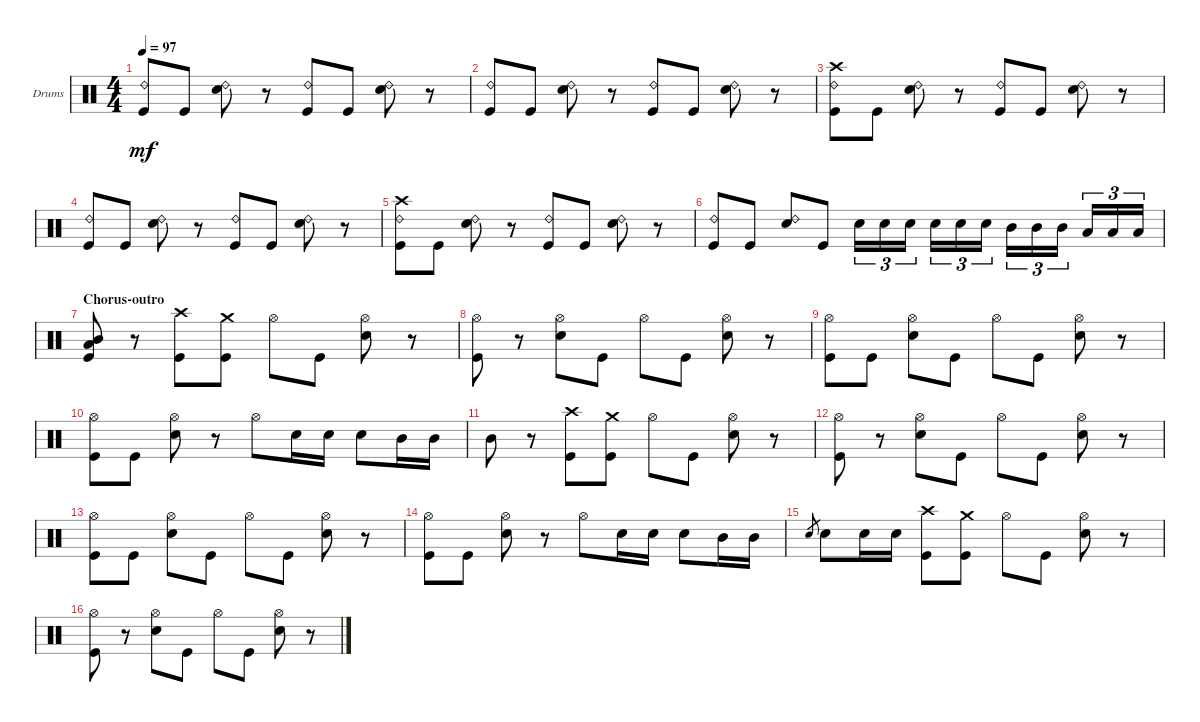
\bracketExtendMode groupsimilarinstruments
\firstSystemTrackNameOrientation horizontal
\otherSystemsTrackNameOrientation horizontal
\track ("Drumkit" "Drums") {instrument percussion}
\staff {score}
\articulation defaults
\ts (4 4)
\tempo 97
\clef neutral
\ks c
("Ride (bell) 2" "Kick (hit)").8{dy mf} "Kick (hit)".8 ("Ride (bell) 2" "Snare (hit) 2").8 r.8 ("Ride (bell) 2" "Kick (hit)").8 "Kick (hit)".8 ("Ride (bell) 2" "Snare (hit) 2").8 r.8 |
("Ride (bell) 2" "Kick (hit)").8 "Kick (hit)".8 ("Ride (bell) 2" "Snare (hit) 2").8 r.8 ("Ride (bell) 2" "Kick (hit)").8 "Kick (hit)".8 ("Ride (bell) 2" "Snare (hit) 2").8 r.8 |
("Ride (bell) 2" "Crash high (hit)" "Kick (hit)").8 "Kick (hit)".8 ("Ride (bell) 2" "Snare (hit) 2").8 r.8 ("Ride (bell) 2" "Kick (hit)").8 "Kick (hit)".8 ("Ride (bell) 2" "Snare (hit) 2").8 r.8 |
("Ride (bell) 2" "Kick (hit)").8 "Kick (hit)".8 ("Ride (bell) 2" "Snare (hit) 2").8 r.8 ("Ride (bell) 2" "Kick (hit)").8 "Kick (hit)".8 ("Ride (bell) 2" "Snare (hit) 2").8 r.8 |
("Ride (bell) 2" "Crash high (hit)" "Kick (hit)").8 "Kick (hit)".8 ("Ride (bell) 2" "Snare (hit) 2").8 r.8 ("Ride (bell) 2" "Kick (hit)").8 "Kick (hit)".8 ("Ride (bell) 2" "Snare (hit) 2").8 r.8 |
("Ride (bell) 2" "Kick (hit)").8 "Kick (hit)".8 ("Ride (bell) 2" "Snare (hit) 2").8 "Kick (hit)".8 "Snare (hit) 2".16{tu (3 2)} "Snare (hit) 2".16{tu (3 2)} "Snare (hit) 2".16{tu (3 2)} "Snare (hit) 2".16{tu (3 2)} "Snare (hit) 2".16{tu (3 2)} "Snare (hit) 2".16{tu (3 2)} "Mid Tom (hit)".16{tu (3 2)} "Mid Tom (hit)".16{tu (3 2)} "Mid Tom (hit)".16{tu (3 2)} "Low Tom (hit)".16{tu (3 2)} "Low Tom (hit)".16{tu (3 2)} "Low Tom (hit)".16{tu (3 2)} |
\section ("" "Chorus-outro")
("Mid Tom (hit)" "Low Tom (hit)" "Kick (hit)").8 r.8 ("Crash high (hit)" "Kick (hit)").8 ("Crash medium (hit)" "Kick (hit)").8 "Hi-Hat (open)".8 "Kick (hit)".8 ("Hi-Hat (open)" "Snare (hit) 2").8 r.8 |
("Hi-Hat (open)" "Kick (hit)").8 r.8 ("Hi-Hat (open)" "Snare (hit) 2").8 "Kick (hit)".8 "Hi-Hat (open)".8 "Kick (hit)".8 ("Hi-Hat (open)" "Snare (hit) 2").8 r.8 |
("Hi-Hat (open)" "Kick (hit)").8 "Kick (hit)".8 ("Hi-Hat (open)" "Snare (hit) 2").8 "Kick (hit)".8 "Hi-Hat (open)".8 "Kick (hit)".8 ("Hi-Hat (open)" "Snare (hit) 2").8 r.8 |
("Hi-Hat (open)" "Kick (hit)").8 "Kick (hit)".8 ("Hi-Hat (open)" "Snare (hit) 2").8 r.8 "Hi-Hat (open)".8 "Snare (hit) 2".16 "Snare (hit) 2".16 "Snare (hit) 2".8 "Mid Tom (hit)".16 "Mid Tom (hit)".16 |
"Mid Tom (hit)".8 r.8 ("Crash high (hit)" "Kick (hit)").8 ("Crash medium (hit)" "Kick (hit)").8 "Hi-Hat (open)".8 "Kick (hit)".8 ("Hi-Hat (open)" "Snare (hit) 2").8 r.8 |
("Hi-Hat (open)" "Kick (hit)").8 r.8 ("Hi-Hat (open)" "Snare (hit) 2").8 "Kick (hit)".8 "Hi-Hat (open)".8 "Kick (hit)".8 ("Hi-Hat (open)" "Snare (hit) 2").8 r.8 |
("Hi-Hat (open)" "Kick (hit)").8 "Kick (hit)".8 ("Hi-Hat (open)" "Snare (hit) 2").8 "Kick (hit)".8 "Hi-Hat (open)".8 "Kick (hit)".8 ("Hi-Hat (open)" "Snare (hit) 2").8 r.8 |
("Hi-Hat (open)" "Kick (hit)").8 "Kick (hit)".8 ("Hi-Hat (open)" "Snare (hit) 2").8 r.8 "Hi-Hat (open)".8 "Snare (hit) 2".16 "Snare (hit) 2".16 "Snare (hit) 2".8 "Mid Tom (hit)".16 "Mid Tom (hit)".16 |
"Snare (hit) 2".8{gr} "Snare (hit) 2".8 "Snare (hit) 2".16 "Snare (hit) 2".16 ("Crash high (hit)" "Kick (hit)").8 ("Crash medium (hit)" "Kick (hit)").8 "Hi-Hat (open)".8 "Kick (hit)".8 ("Hi-Hat (open)" "Snare (hit) 2").8 r.8 |
("Hi-Hat (open)" "Kick (hit)").8 r.8 ("Hi-Hat (open)" "Snare (hit) 2").8 "Kick (hit)".8 "Hi-Hat (open)".8 "Kick (hit)".8 ("Hi-Hat (open)" "Snare (hit) 2").8 r.8
